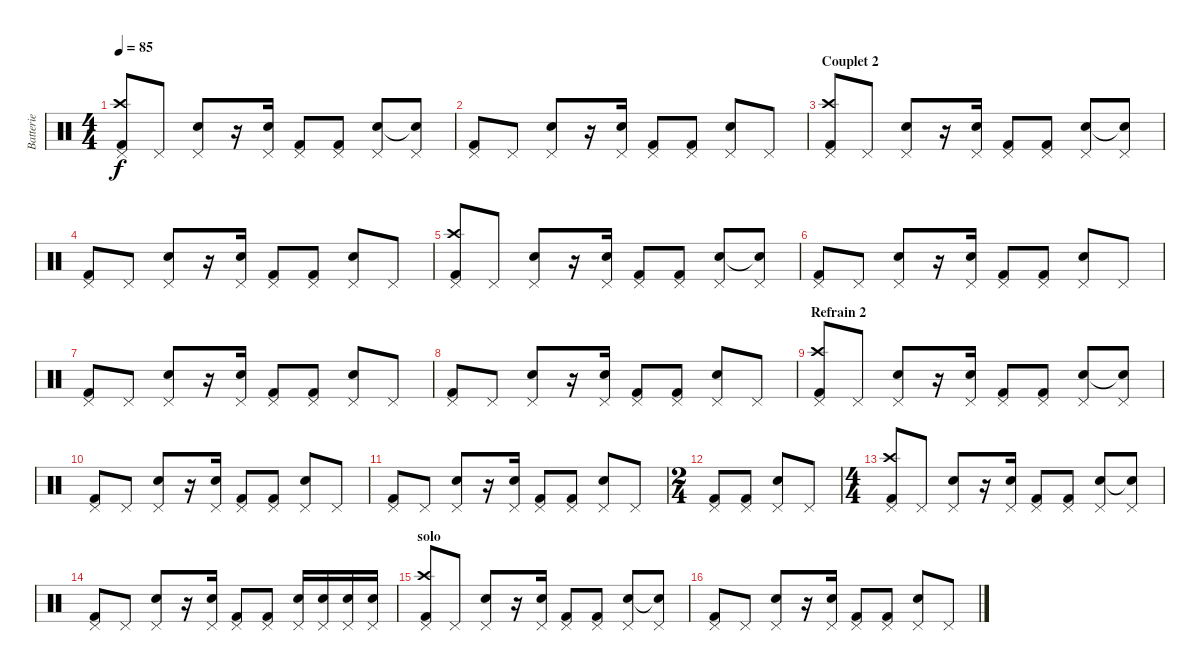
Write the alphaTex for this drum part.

\track ("Batterie" "Batterie") {instrument percussion}
\staff {score}
\articulation defaults
\ts (4 4)
\tempo 85
\clef neutral
\ks c
("Pedal Hi-Hat (hit)" "Crash high (hit)" "Kick (hit) 2").8{dy f} "Pedal Hi-Hat (hit)".8 ("Pedal Hi-Hat (hit)" "Electric Snare (hit)").8 r.16 ("Pedal Hi-Hat (hit)" "Electric Snare (hit)").16 ("Pedal Hi-Hat (hit)" "Kick (hit) 2").8 ("Pedal Hi-Hat (hit)" "Kick (hit) 2").8 ("Pedal Hi-Hat (hit)" "Electric Snare (hit)").8 ("Pedal Hi-Hat (hit)" "Snare (hit)"{t}).8 |
("Pedal Hi-Hat (hit)" "Kick (hit) 2").8 "Pedal Hi-Hat (hit)".8 ("Pedal Hi-Hat (hit)" "Electric Snare (hit)").8 r.16 ("Pedal Hi-Hat (hit)" "Electric Snare (hit)").16 ("Pedal Hi-Hat (hit)" "Kick (hit) 2").8 ("Pedal Hi-Hat (hit)" "Kick (hit) 2").8 ("Pedal Hi-Hat (hit)" "Electric Snare (hit)").8 "Pedal Hi-Hat (hit)".8 |
\section ("" "Couplet 2")
("Pedal Hi-Hat (hit)" "Crash high (hit)" "Kick (hit) 2").8 "Pedal Hi-Hat (hit)".8 ("Pedal Hi-Hat (hit)" "Electric Snare (hit)").8 r.16 ("Pedal Hi-Hat (hit)" "Electric Snare (hit)").16 ("Pedal Hi-Hat (hit)" "Kick (hit) 2").8 ("Pedal Hi-Hat (hit)" "Kick (hit) 2").8 ("Pedal Hi-Hat (hit)" "Electric Snare (hit)").8 ("Pedal Hi-Hat (hit)" "Snare (hit)"{t}).8 |
("Pedal Hi-Hat (hit)" "Kick (hit) 2").8 "Pedal Hi-Hat (hit)".8 ("Pedal Hi-Hat (hit)" "Electric Snare (hit)").8 r.16 ("Pedal Hi-Hat (hit)" "Electric Snare (hit)").16 ("Pedal Hi-Hat (hit)" "Kick (hit) 2").8 ("Pedal Hi-Hat (hit)" "Kick (hit) 2").8 ("Pedal Hi-Hat (hit)" "Electric Snare (hit)").8 "Pedal Hi-Hat (hit)".8 |
("Pedal Hi-Hat (hit)" "Crash high (hit)" "Kick (hit) 2").8 "Pedal Hi-Hat (hit)".8 ("Pedal Hi-Hat (hit)" "Electric Snare (hit)").8 r.16 ("Pedal Hi-Hat (hit)" "Electric Snare (hit)").16 ("Pedal Hi-Hat (hit)" "Kick (hit) 2").8 ("Pedal Hi-Hat (hit)" "Kick (hit) 2").8 ("Pedal Hi-Hat (hit)" "Electric Snare (hit)").8 ("Pedal Hi-Hat (hit)" "Snare (hit)"{t}).8 |
("Pedal Hi-Hat (hit)" "Kick (hit) 2").8 "Pedal Hi-Hat (hit)".8 ("Pedal Hi-Hat (hit)" "Electric Snare (hit)").8 r.16 ("Pedal Hi-Hat (hit)" "Electric Snare (hit)").16 ("Pedal Hi-Hat (hit)" "Kick (hit) 2").8 ("Pedal Hi-Hat (hit)" "Kick (hit) 2").8 ("Pedal Hi-Hat (hit)" "Electric Snare (hit)").8 "Pedal Hi-Hat (hit)".8 |
("Pedal Hi-Hat (hit)" "Kick (hit) 2").8 "Pedal Hi-Hat (hit)".8 ("Pedal Hi-Hat (hit)" "Electric Snare (hit)").8 r.16 ("Pedal Hi-Hat (hit)" "Electric Snare (hit)").16 ("Pedal Hi-Hat (hit)" "Kick (hit) 2").8 ("Pedal Hi-Hat (hit)" "Kick (hit) 2").8 ("Pedal Hi-Hat (hit)" "Electric Snare (hit)").8 "Pedal Hi-Hat (hit)".8 |
("Pedal Hi-Hat (hit)" "Kick (hit) 2").8 "Pedal Hi-Hat (hit)".8 ("Pedal Hi-Hat (hit)" "Electric Snare (hit)").8 r.16 ("Pedal Hi-Hat (hit)" "Electric Snare (hit)").16 ("Pedal Hi-Hat (hit)" "Kick (hit) 2").8 ("Pedal Hi-Hat (hit)" "Kick (hit) 2").8 ("Pedal Hi-Hat (hit)" "Electric Snare (hit)").8 "Pedal Hi-Hat (hit)".8 |
\section ("" "Refrain 2")
("Pedal Hi-Hat (hit)" "Crash high (hit)" "Kick (hit) 2").8 "Pedal Hi-Hat (hit)".8 ("Pedal Hi-Hat (hit)" "Electric Snare (hit)").8 r.16 ("Pedal Hi-Hat (hit)" "Electric Snare (hit)").16 ("Pedal Hi-Hat (hit)" "Kick (hit) 2").8 ("Pedal Hi-Hat (hit)" "Kick (hit) 2").8 ("Pedal Hi-Hat (hit)" "Electric Snare (hit)").8 ("Pedal Hi-Hat (hit)" "Snare (hit)"{t}).8 |
("Pedal Hi-Hat (hit)" "Kick (hit) 2").8 "Pedal Hi-Hat (hit)".8 ("Pedal Hi-Hat (hit)" "Electric Snare (hit)").8 r.16 ("Pedal Hi-Hat (hit)" "Electric Snare (hit)").16 ("Pedal Hi-Hat (hit)" "Kick (hit) 2").8 ("Pedal Hi-Hat (hit)" "Kick (hit) 2").8 ("Pedal Hi-Hat (hit)" "Electric Snare (hit)").8 "Pedal Hi-Hat (hit)".8 |
("Pedal Hi-Hat (hit)" "Kick (hit) 2").8 "Pedal Hi-Hat (hit)".8 ("Pedal Hi-Hat (hit)" "Electric Snare (hit)").8 r.16 ("Pedal Hi-Hat (hit)" "Electric Snare (hit)").16 ("Pedal Hi-Hat (hit)" "Kick (hit) 2").8 ("Pedal Hi-Hat (hit)" "Kick (hit) 2").8 ("Pedal Hi-Hat (hit)" "Electric Snare (hit)").8 "Pedal Hi-Hat (hit)".8 |
\ts (2 4)
("Pedal Hi-Hat (hit)" "Kick (hit) 2").8 ("Pedal Hi-Hat (hit)" "Kick (hit) 2").8 ("Pedal Hi-Hat (hit)" "Electric Snare (hit)").8 "Pedal Hi-Hat (hit)".8 |
\ts (4 4)
("Pedal Hi-Hat (hit)" "Crash high (hit)" "Kick (hit) 2").8 "Pedal Hi-Hat (hit)".8 ("Pedal Hi-Hat (hit)" "Electric Snare (hit)").8 r.16 ("Pedal Hi-Hat (hit)" "Electric Snare (hit)").16 ("Pedal Hi-Hat (hit)" "Kick (hit) 2").8 ("Pedal Hi-Hat (hit)" "Kick (hit) 2").8 ("Pedal Hi-Hat (hit)" "Electric Snare (hit)").8 ("Pedal Hi-Hat (hit)" "Snare (hit)"{t}).8 |
("Pedal Hi-Hat (hit)" "Kick (hit) 2").8 "Pedal Hi-Hat (hit)".8 ("Pedal Hi-Hat (hit)" "Electric Snare (hit)").8 r.16 ("Pedal Hi-Hat (hit)" "Electric Snare (hit)").16 ("Pedal Hi-Hat (hit)" "Kick (hit) 2").8 ("Pedal Hi-Hat (hit)" "Kick (hit) 2").8 ("Pedal Hi-Hat (hit)" "Electric Snare (hit)").16 ("Pedal Hi-Hat (hit)" "Electric Snare (hit)").16 ("Pedal Hi-Hat (hit)" "Electric Snare (hit)").16 ("Pedal Hi-Hat (hit)" "Electric Snare (hit)").16 |
\section ("" "solo")
("Pedal Hi-Hat (hit)" "Crash high (hit)" "Kick (hit) 2").8 "Pedal Hi-Hat (hit)".8 ("Pedal Hi-Hat (hit)" "Electric Snare (hit)").8 r.16 ("Pedal Hi-Hat (hit)" "Electric Snare (hit)").16 ("Pedal Hi-Hat (hit)" "Kick (hit) 2").8 ("Pedal Hi-Hat (hit)" "Kick (hit) 2").8 ("Pedal Hi-Hat (hit)" "Electric Snare (hit)").8 ("Pedal Hi-Hat (hit)" "Snare (hit)"{t}).8 |
("Pedal Hi-Hat (hit)" "Kick (hit) 2").8 "Pedal Hi-Hat (hit)".8 ("Pedal Hi-Hat (hit)" "Electric Snare (hit)").8 r.16 ("Pedal Hi-Hat (hit)" "Electric Snare (hit)").16 ("Pedal Hi-Hat (hit)" "Kick (hit) 2").8 ("Pedal Hi-Hat (hit)" "Kick (hit) 2").8 ("Pedal Hi-Hat (hit)" "Electric Snare (hit)").8 "Pedal Hi-Hat (hit)".8
